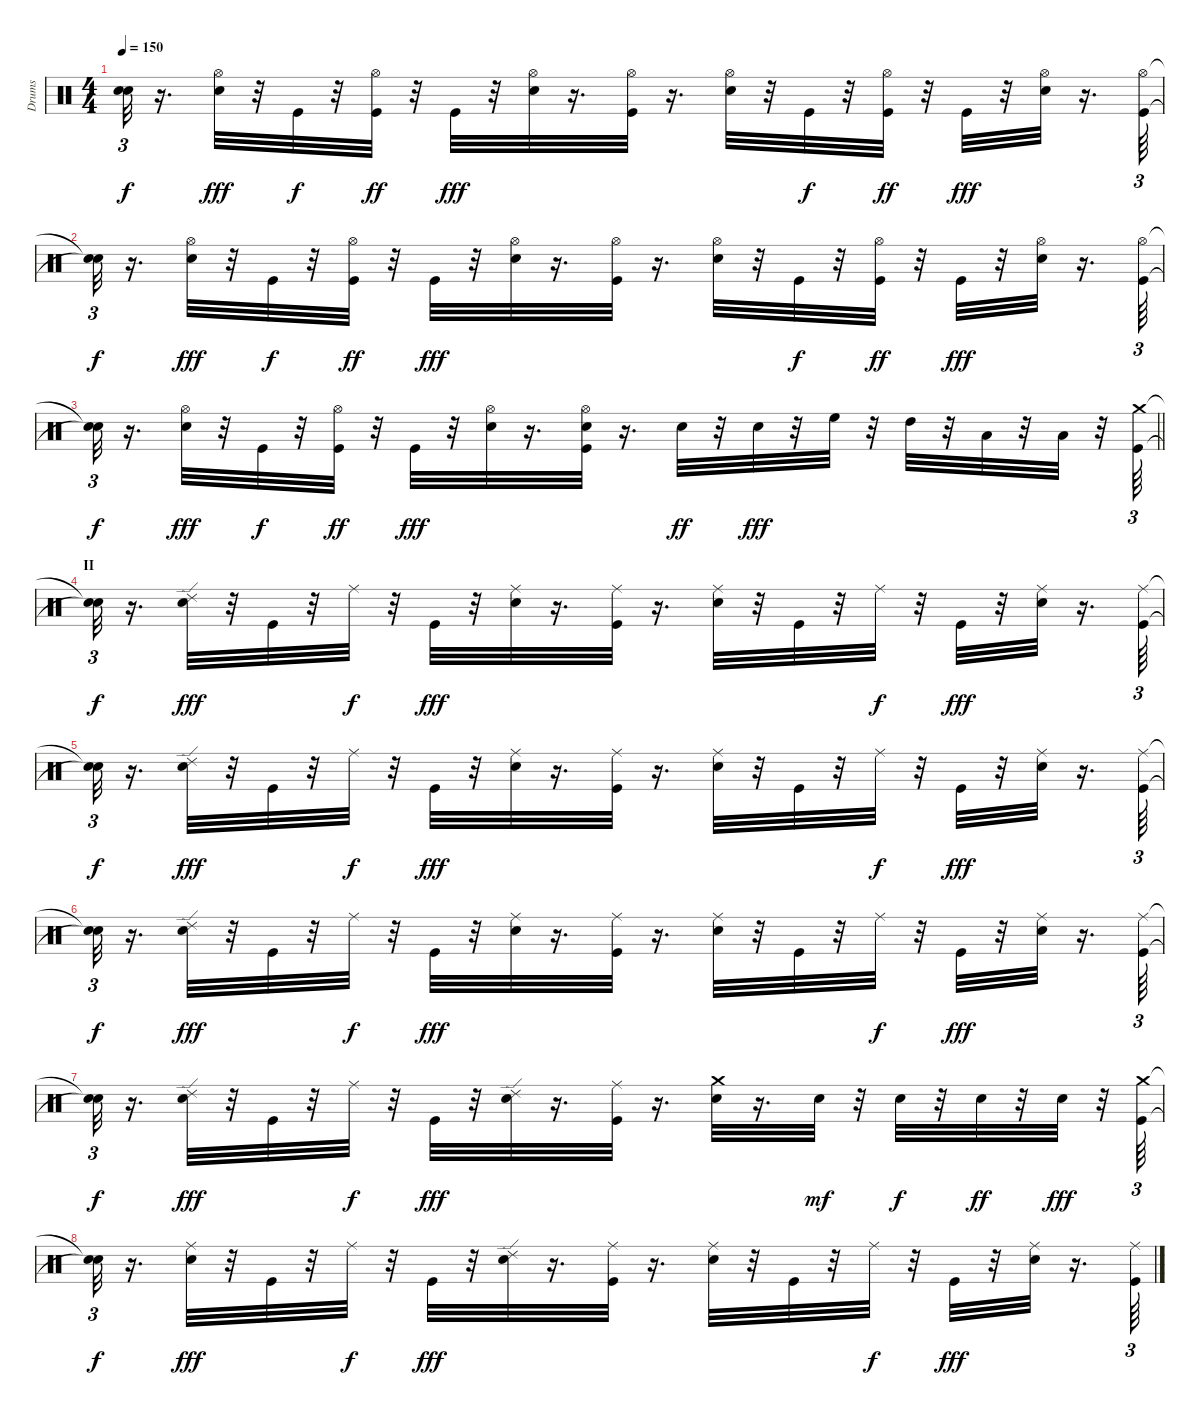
\track ("Drums" "Drums") {instrument percussion}
\staff {score}
\articulation defaults
\ts (4 4)
\tempo 150
\clef neutral
\ks c
("Snare (hit)"{t} "Snare (hit)"{t}).32{tu (3 2) dy f} r.16{d} ("Hi-Hat (open)" "Electric Snare (hit)").32{dy fff} r.32 "Kick (hit)".32{dy f} r.32 ("Hi-Hat (open)" "Kick (hit)").32{dy ff} r.32 "Kick (hit)".32{dy fff} r.32 ("Hi-Hat (open)" "Electric Snare (hit)").32 r.16{d} ("Hi-Hat (open)" "Kick (hit)").32 r.16{d} ("Hi-Hat (open)" "Electric Snare (hit)").32 r.32 "Kick (hit)".32{dy f} r.32 ("Hi-Hat (open)" "Kick (hit)").32{dy ff} r.32 "Kick (hit)".32{dy fff} r.32 ("Hi-Hat (open)" "Electric Snare (hit)").32 r.16{d} ("Hi-Hat (open)" "Kick (hit)").64{tu (3 2)} |
("Snare (hit)"{t} "Snare (hit)"{t}).32{tu (3 2) dy f} r.16{d} ("Hi-Hat (open)" "Electric Snare (hit)").32{dy fff} r.32 "Kick (hit)".32{dy f} r.32 ("Hi-Hat (open)" "Kick (hit)").32{dy ff} r.32 "Kick (hit)".32{dy fff} r.32 ("Hi-Hat (open)" "Electric Snare (hit)").32 r.16{d} ("Hi-Hat (open)" "Kick (hit)").32 r.16{d} ("Hi-Hat (open)" "Electric Snare (hit)").32 r.32 "Kick (hit)".32{dy f} r.32 ("Hi-Hat (open)" "Kick (hit)").32{dy ff} r.32 "Kick (hit)".32{dy fff} r.32 ("Hi-Hat (open)" "Electric Snare (hit)").32 r.16{d} ("Hi-Hat (open)" "Kick (hit)").64{tu (3 2)} |
\barLineRight lightlight
("Snare (hit)"{t} "Snare (hit)"{t}).32{tu (3 2) dy f} r.16{d} ("Hi-Hat (open)" "Electric Snare (hit)").32{dy fff} r.32 "Kick (hit)".32{dy f} r.32 ("Hi-Hat (open)" "Kick (hit)").32{dy ff} r.32 "Kick (hit)".32{dy fff} r.32 ("Hi-Hat (open)" "Electric Snare (hit)").32 r.16{d} ("Kick (hit)" "Hi-Hat (open)" "Electric Snare (hit)").32 r.16{d} "Electric Snare (hit)".32{dy ff} r.32 "Electric Snare (hit)".32{dy fff} r.32 "High Floor Tom (hit)".32 r.32 "High Tom (hit)".32 r.32 "Low Tom (hit)".32 r.32 "Low Floor Tom (hit)".32 r.32 ("Crash medium (hit)" "Kick (hit)").64{tu (3 2)} |
\section ("" "II")
("Snare (hit)"{t} "Snare (hit)"{t}).32{tu (3 2) dy f} r.16{d} ("Electric Snare (hit)" "Ride (edge) 2").32{dy fff} r.32 "Kick (hit)".32 r.32 "Ride (middle)".32{dy f} r.32 "Kick (hit)".32{dy fff} r.32 ("Electric Snare (hit)" "Ride (middle)").32 r.16{d} ("Ride (middle)" "Kick (hit)").32 r.16{d} ("Electric Snare (hit)" "Ride (middle)").32 r.32 "Kick (hit)".32 r.32 "Ride (middle)".32{dy f} r.32 "Kick (hit)".32{dy fff} r.32 ("Electric Snare (hit)" "Ride (middle)").32 r.16{d} ("Ride (middle)" "Kick (hit)").64{tu (3 2)} |
("Snare (hit)"{t} "Snare (hit)"{t}).32{tu (3 2) dy f} r.16{d} ("Electric Snare (hit)" "Ride (edge) 2").32{dy fff} r.32 "Kick (hit)".32 r.32 "Ride (middle)".32{dy f} r.32 "Kick (hit)".32{dy fff} r.32 ("Electric Snare (hit)" "Ride (middle)").32 r.16{d} ("Kick (hit)" "Ride (middle)").32 r.16{d} ("Electric Snare (hit)" "Ride (middle)").32 r.32 "Kick (hit)".32 r.32 "Ride (middle)".32{dy f} r.32 "Kick (hit)".32{dy fff} r.32 ("Electric Snare (hit)" "Ride (middle)").32 r.16{d} ("Ride (middle)" "Kick (hit)").64{tu (3 2)} |
("Snare (hit)"{t} "Snare (hit)"{t}).32{tu (3 2) dy f} r.16{d} ("Electric Snare (hit)" "Ride (edge) 2").32{dy fff} r.32 "Kick (hit)".32 r.32 "Ride (middle)".32{dy f} r.32 "Kick (hit)".32{dy fff} r.32 ("Electric Snare (hit)" "Ride (middle)").32 r.16{d} ("Kick (hit)" "Ride (middle)").32 r.16{d} ("Electric Snare (hit)" "Ride (middle)").32 r.32 "Kick (hit)".32 r.32 "Ride (middle)".32{dy f} r.32 "Kick (hit)".32{dy fff} r.32 ("Electric Snare (hit)" "Ride (middle)").32 r.16{d} ("Kick (hit)" "Ride (middle)").64{tu (3 2)} |
("Snare (hit)"{t} "Snare (hit)"{t}).32{tu (3 2) dy f} r.16{d} ("Electric Snare (hit)" "Ride (edge) 2").32{dy fff} r.32 "Kick (hit)".32 r.32 "Ride (middle)".32{dy f} r.32 "Kick (hit)".32{dy fff} r.32 ("Electric Snare (hit)" "Ride (edge) 2").32 r.16{d} ("Kick (hit)" "Ride (middle)").32 r.16{d} ("Electric Snare (hit)" "Crash medium (hit)").32 r.16{d} "Electric Snare (hit)".32{dy mf} r.32 "Electric Snare (hit)".32{dy f} r.32 "Electric Snare (hit)".32{dy ff} r.32 "Electric Snare (hit)".32{dy fff} r.32 ("Crash medium (hit)" "Kick (hit)").64{tu (3 2)} |
("Snare (hit)"{t} "Snare (hit)"{t}).32{tu (3 2) dy f} r.16{d} ("Electric Snare (hit)" "Ride (middle)").32{dy fff} r.32 "Kick (hit)".32 r.32 "Ride (middle)".32{dy f} r.32 "Kick (hit)".32{dy fff} r.32 ("Electric Snare (hit)" "Ride (edge) 2").32 r.16{d} ("Ride (middle)" "Kick (hit)").32 r.16{d} ("Electric Snare (hit)" "Ride (middle)").32 r.32 "Kick (hit)".32 r.32 "Ride (middle)".32{dy f} r.32 "Kick (hit)".32{dy fff} r.32 ("Electric Snare (hit)" "Ride (middle)").32 r.16{d} ("Ride (middle)" "Kick (hit)").64{tu (3 2)}
